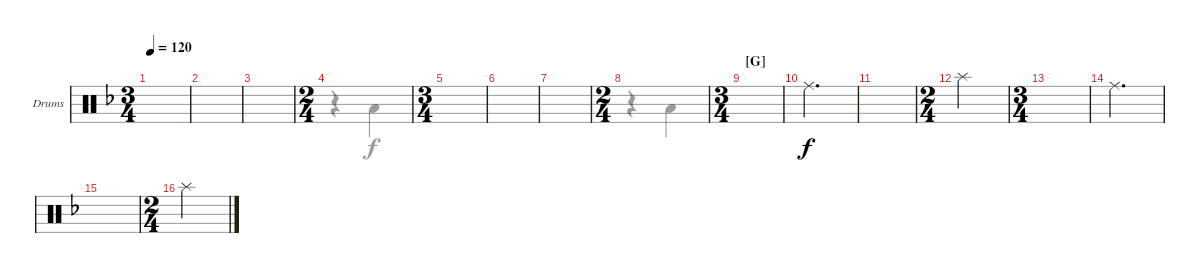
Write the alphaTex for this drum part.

\defaultSystemsLayout 4
\bracketExtendMode groupsimilarinstruments
\firstSystemTrackNameOrientation horizontal
\otherSystemsTrackNameOrientation horizontal
\track ("Drumkit" "Drums") {instrument percussion}
\staff {score}
\articulation defaults
\voice
\ts (3 4)
\tempo 120
\clef neutral
\ks f
|
|
|
\ts (2 4)
|
\ts (3 4)
|
|
|
\ts (2 4)
|
\ts (3 4)
\section ("G" "")
|
"Ride (middle)".2{d} |
|
\ts (2 4)
"Splash (hit)".2 |
\ts (3 4)
|
"Ride (middle)".2{d} |
|
\ts (2 4)
"Splash (hit)".2
\voice
\clef neutral
\ottava regular
\simile none
\ks f
|
|
|
r.4 "Low Tom (hit)".4 |
|
|
|
r.4 "Low Tom (hit)".4 |
|
|
|
|
|
|
|
